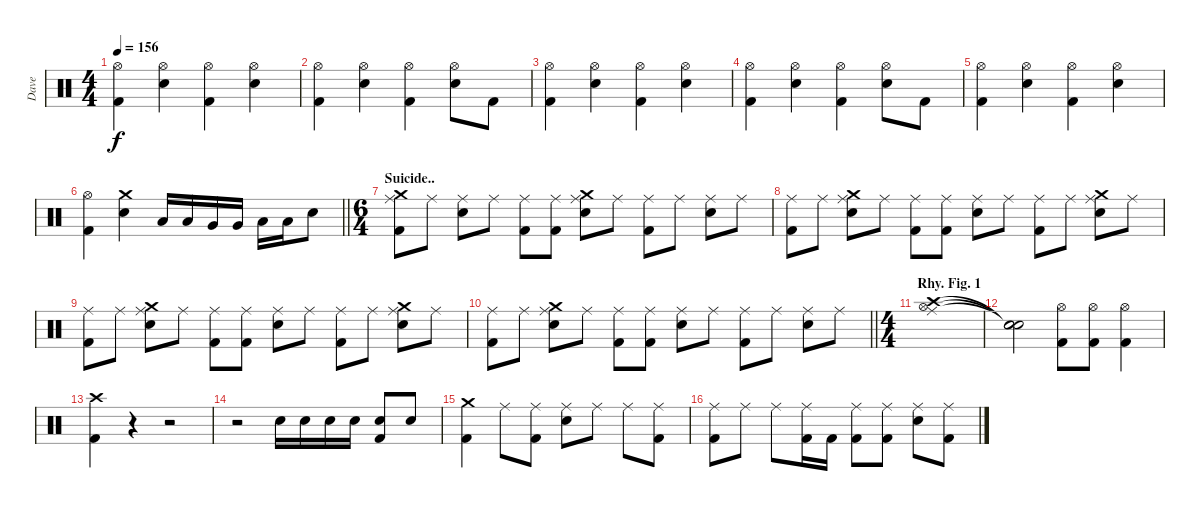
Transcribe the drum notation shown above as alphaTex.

\track ("Dave" "Dave") {instrument percussion}
\staff {score}
\articulation defaults
\ts (4 4)
\tempo 156
\clef neutral
\ks c
("Kick (hit) 2" "Hi-Hat (open)").4{dy f} ("Hi-Hat (open)" "Electric Snare (hit)").4 ("Hi-Hat (open)" "Kick (hit) 2").4 ("Hi-Hat (open)" "Electric Snare (hit)").4 |
("Kick (hit) 2" "Hi-Hat (open)").4 ("Hi-Hat (open)" "Electric Snare (hit)").4 ("Hi-Hat (open)" "Kick (hit) 2").4 ("Hi-Hat (open)" "Electric Snare (hit)").8 "Kick (hit) 2".8 |
("Kick (hit) 2" "Hi-Hat (open)").4 ("Hi-Hat (open)" "Electric Snare (hit)").4 ("Hi-Hat (open)" "Kick (hit) 2").4 ("Hi-Hat (open)" "Electric Snare (hit)").4 |
("Kick (hit) 2" "Hi-Hat (open)").4 ("Hi-Hat (open)" "Electric Snare (hit)").4 ("Hi-Hat (open)" "Kick (hit) 2").4 ("Hi-Hat (open)" "Electric Snare (hit)").8 "Kick (hit) 2".8 |
("Kick (hit) 2" "Hi-Hat (open)").4 ("Hi-Hat (open)" "Electric Snare (hit)").4 ("Hi-Hat (open)" "Kick (hit) 2").4 ("Hi-Hat (open)" "Electric Snare (hit)").4 |
\barLineRight lightlight
("Kick (hit) 2" "Hi-Hat (open)").4 ("Electric Snare (hit)" "Crash medium (hit)").4 "Low Tom (hit)".16 "Low Tom (hit)".16 "Very Low Tom (hit)".16 "Very Low Tom (hit)".16 "Low Floor Tom (hit)".16 "Low Floor Tom (hit)".16 "Electric Snare (hit)".8 |
\ts (6 4)
\section ("" "Suicide..")
("Crash medium (hit)" "Ride (middle)" "Kick (hit) 2").8 "Ride (middle)".8 ("Ride (middle)" "Electric Snare (hit)").8 "Ride (middle)".8 ("Ride (middle)" "Kick (hit) 2").8 ("Ride (middle)" "Kick (hit) 2").8 ("Ride (middle)" "Electric Snare (hit)" "Crash medium (hit)").8 "Ride (middle)".8 ("Ride (middle)" "Kick (hit) 2").8 "Ride (middle)".8 ("Ride (middle)" "Electric Snare (hit)").8 "Ride (middle)".8 |
("Kick (hit) 2" "Ride (middle)").8 "Ride (middle)".8 ("Crash medium (hit)" "Electric Snare (hit)" "Ride (middle)").8 "Ride (middle)".8 ("Kick (hit) 2" "Ride (middle)").8 ("Kick (hit) 2" "Ride (middle)").8 ("Electric Snare (hit)" "Ride (middle)").8 "Ride (middle)".8 ("Kick (hit) 2" "Ride (middle)").8 "Ride (middle)".8 ("Electric Snare (hit)" "Ride (middle)" "Crash medium (hit)").8 "Ride (middle)".8 |
("Ride (middle)" "Kick (hit) 2").8 "Ride (middle)".8 ("Crash medium (hit)" "Electric Snare (hit)" "Ride (middle)").8 "Ride (middle)".8 ("Kick (hit) 2" "Ride (middle)").8 ("Kick (hit) 2" "Ride (middle)").8 ("Electric Snare (hit)" "Ride (middle)").8 "Ride (middle)".8 ("Kick (hit) 2" "Ride (middle)").8 "Ride (middle)".8 ("Electric Snare (hit)" "Ride (middle)" "Crash medium (hit)").8 "Ride (middle)".8 |
\barLineRight lightlight
("Ride (middle)" "Kick (hit) 2").8 "Ride (middle)".8 ("Crash medium (hit)" "Electric Snare (hit)" "Ride (middle)").8 "Ride (middle)".8 ("Kick (hit) 2" "Ride (middle)").8 ("Kick (hit) 2" "Ride (middle)").8 ("Electric Snare (hit)" "Ride (middle)").8 "Ride (middle)".8 ("Kick (hit) 2" "Ride (middle)").8 "Ride (middle)".8 ("Electric Snare (hit)" "Ride (middle)").8 "Ride (middle)".8 |
\ts (4 4)
\section ("" "Rhy. Fig. 1")
("Ride (middle)" "Hi-Hat (open)" "Crash high (hit)").1 |
("Snare (hit)"{t} "Snare (hit)"{t} "Snare (hit)"{t}).2 ("Kick (hit) 2" "Hi-Hat (open)").8 ("Hi-Hat (open)" "Kick (hit) 2").8 ("Hi-Hat (open)" "Kick (hit) 2").4 |
("Crash high (hit)" "Kick (hit) 2").4 r.4 r.2 |
r.2 "Electric Snare (hit)".16 "Electric Snare (hit)".16 "Electric Snare (hit)".16 "Electric Snare (hit)".16 ("Electric Snare (hit)" "Kick (hit) 2").8 "Electric Snare (hit)".8 |
("Kick (hit) 2" "Crash medium (hit)").4 "Ride (middle)".8 ("Ride (middle)" "Kick (hit) 2").8 ("Ride (middle)" "Electric Snare (hit)").8 "Ride (middle)".8 "Ride (middle)".8 ("Ride (middle)" "Kick (hit) 2").8 |
("Ride (middle)" "Kick (hit) 2").8 "Ride (middle)".8 "Ride (middle)".8 ("Kick (hit) 2" "Ride (middle)").16 "Kick (hit) 2".16 ("Ride (middle)" "Kick (hit) 2").8 ("Ride (middle)" "Kick (hit) 2").8 ("Ride (middle)" "Electric Snare (hit)").8 ("Ride (middle)" "Kick (hit) 2").8
